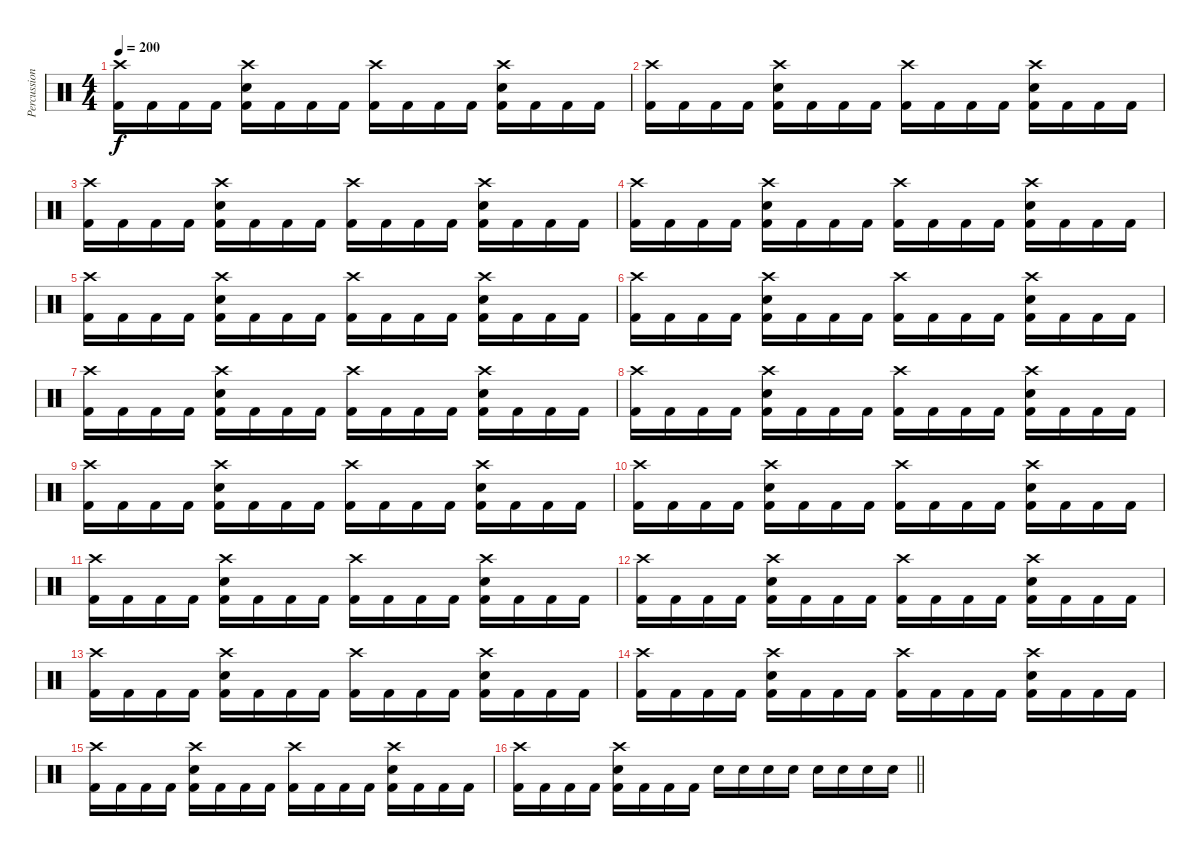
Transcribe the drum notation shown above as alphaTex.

\track ("Percussion" "Percussion") {instrument percussion}
\staff {score}
\articulation defaults
\ts (4 4)
\section ("" "")
\tempo 200
\clef neutral
\ks c
("Crash high (hit)" "Kick (hit) 2").16{dy f} "Kick (hit) 2".16 "Kick (hit) 2".16 "Kick (hit) 2".16 ("Crash high (hit)" "Electric Snare (hit)" "Kick (hit) 2").16 "Kick (hit) 2".16 "Kick (hit) 2".16 "Kick (hit) 2".16 ("Crash high (hit)" "Kick (hit) 2").16 "Kick (hit) 2".16 "Kick (hit) 2".16 "Kick (hit) 2".16 ("Crash high (hit)" "Electric Snare (hit)" "Kick (hit) 2").16 "Kick (hit) 2".16 "Kick (hit) 2".16 "Kick (hit) 2".16 |
("Crash high (hit)" "Kick (hit) 2").16 "Kick (hit) 2".16 "Kick (hit) 2".16 "Kick (hit) 2".16 ("Crash high (hit)" "Electric Snare (hit)" "Kick (hit) 2").16 "Kick (hit) 2".16 "Kick (hit) 2".16 "Kick (hit) 2".16 ("Crash high (hit)" "Kick (hit) 2").16 "Kick (hit) 2".16 "Kick (hit) 2".16 "Kick (hit) 2".16 ("Crash high (hit)" "Electric Snare (hit)" "Kick (hit) 2").16 "Kick (hit) 2".16 "Kick (hit) 2".16 "Kick (hit) 2".16 |
("Crash high (hit)" "Kick (hit) 2").16 "Kick (hit) 2".16 "Kick (hit) 2".16 "Kick (hit) 2".16 ("Crash high (hit)" "Electric Snare (hit)" "Kick (hit) 2").16 "Kick (hit) 2".16 "Kick (hit) 2".16 "Kick (hit) 2".16 ("Crash high (hit)" "Kick (hit) 2").16 "Kick (hit) 2".16 "Kick (hit) 2".16 "Kick (hit) 2".16 ("Crash high (hit)" "Electric Snare (hit)" "Kick (hit) 2").16 "Kick (hit) 2".16 "Kick (hit) 2".16 "Kick (hit) 2".16 |
("Crash high (hit)" "Kick (hit) 2").16 "Kick (hit) 2".16 "Kick (hit) 2".16 "Kick (hit) 2".16 ("Crash high (hit)" "Electric Snare (hit)" "Kick (hit) 2").16 "Kick (hit) 2".16 "Kick (hit) 2".16 "Kick (hit) 2".16 ("Crash high (hit)" "Kick (hit) 2").16 "Kick (hit) 2".16 "Kick (hit) 2".16 "Kick (hit) 2".16 ("Crash high (hit)" "Electric Snare (hit)" "Kick (hit) 2").16 "Kick (hit) 2".16 "Kick (hit) 2".16 "Kick (hit) 2".16 |
("Crash high (hit)" "Kick (hit) 2").16 "Kick (hit) 2".16 "Kick (hit) 2".16 "Kick (hit) 2".16 ("Crash high (hit)" "Electric Snare (hit)" "Kick (hit) 2").16 "Kick (hit) 2".16 "Kick (hit) 2".16 "Kick (hit) 2".16 ("Crash high (hit)" "Kick (hit) 2").16 "Kick (hit) 2".16 "Kick (hit) 2".16 "Kick (hit) 2".16 ("Crash high (hit)" "Electric Snare (hit)" "Kick (hit) 2").16 "Kick (hit) 2".16 "Kick (hit) 2".16 "Kick (hit) 2".16 |
("Crash high (hit)" "Kick (hit) 2").16 "Kick (hit) 2".16 "Kick (hit) 2".16 "Kick (hit) 2".16 ("Crash high (hit)" "Electric Snare (hit)" "Kick (hit) 2").16 "Kick (hit) 2".16 "Kick (hit) 2".16 "Kick (hit) 2".16 ("Crash high (hit)" "Kick (hit) 2").16 "Kick (hit) 2".16 "Kick (hit) 2".16 "Kick (hit) 2".16 ("Crash high (hit)" "Electric Snare (hit)" "Kick (hit) 2").16 "Kick (hit) 2".16 "Kick (hit) 2".16 "Kick (hit) 2".16 |
("Crash high (hit)" "Kick (hit) 2").16 "Kick (hit) 2".16 "Kick (hit) 2".16 "Kick (hit) 2".16 ("Crash high (hit)" "Electric Snare (hit)" "Kick (hit) 2").16 "Kick (hit) 2".16 "Kick (hit) 2".16 "Kick (hit) 2".16 ("Crash high (hit)" "Kick (hit) 2").16 "Kick (hit) 2".16 "Kick (hit) 2".16 "Kick (hit) 2".16 ("Crash high (hit)" "Electric Snare (hit)" "Kick (hit) 2").16 "Kick (hit) 2".16 "Kick (hit) 2".16 "Kick (hit) 2".16 |
("Crash high (hit)" "Kick (hit) 2").16 "Kick (hit) 2".16 "Kick (hit) 2".16 "Kick (hit) 2".16 ("Crash high (hit)" "Electric Snare (hit)" "Kick (hit) 2").16 "Kick (hit) 2".16 "Kick (hit) 2".16 "Kick (hit) 2".16 ("Crash high (hit)" "Kick (hit) 2").16 "Kick (hit) 2".16 "Kick (hit) 2".16 "Kick (hit) 2".16 ("Crash high (hit)" "Electric Snare (hit)" "Kick (hit) 2").16 "Kick (hit) 2".16 "Kick (hit) 2".16 "Kick (hit) 2".16 |
("Crash high (hit)" "Kick (hit) 2").16 "Kick (hit) 2".16 "Kick (hit) 2".16 "Kick (hit) 2".16 ("Crash high (hit)" "Electric Snare (hit)" "Kick (hit) 2").16 "Kick (hit) 2".16 "Kick (hit) 2".16 "Kick (hit) 2".16 ("Crash high (hit)" "Kick (hit) 2").16 "Kick (hit) 2".16 "Kick (hit) 2".16 "Kick (hit) 2".16 ("Crash high (hit)" "Electric Snare (hit)" "Kick (hit) 2").16 "Kick (hit) 2".16 "Kick (hit) 2".16 "Kick (hit) 2".16 |
("Crash high (hit)" "Kick (hit) 2").16 "Kick (hit) 2".16 "Kick (hit) 2".16 "Kick (hit) 2".16 ("Crash high (hit)" "Electric Snare (hit)" "Kick (hit) 2").16 "Kick (hit) 2".16 "Kick (hit) 2".16 "Kick (hit) 2".16 ("Crash high (hit)" "Kick (hit) 2").16 "Kick (hit) 2".16 "Kick (hit) 2".16 "Kick (hit) 2".16 ("Crash high (hit)" "Electric Snare (hit)" "Kick (hit) 2").16 "Kick (hit) 2".16 "Kick (hit) 2".16 "Kick (hit) 2".16 |
("Crash high (hit)" "Kick (hit) 2").16 "Kick (hit) 2".16 "Kick (hit) 2".16 "Kick (hit) 2".16 ("Crash high (hit)" "Electric Snare (hit)" "Kick (hit) 2").16 "Kick (hit) 2".16 "Kick (hit) 2".16 "Kick (hit) 2".16 ("Crash high (hit)" "Kick (hit) 2").16 "Kick (hit) 2".16 "Kick (hit) 2".16 "Kick (hit) 2".16 ("Crash high (hit)" "Electric Snare (hit)" "Kick (hit) 2").16 "Kick (hit) 2".16 "Kick (hit) 2".16 "Kick (hit) 2".16 |
("Crash high (hit)" "Kick (hit) 2").16 "Kick (hit) 2".16 "Kick (hit) 2".16 "Kick (hit) 2".16 ("Crash high (hit)" "Electric Snare (hit)" "Kick (hit) 2").16 "Kick (hit) 2".16 "Kick (hit) 2".16 "Kick (hit) 2".16 ("Crash high (hit)" "Kick (hit) 2").16 "Kick (hit) 2".16 "Kick (hit) 2".16 "Kick (hit) 2".16 ("Crash high (hit)" "Electric Snare (hit)" "Kick (hit) 2").16 "Kick (hit) 2".16 "Kick (hit) 2".16 "Kick (hit) 2".16 |
("Crash high (hit)" "Kick (hit) 2").16 "Kick (hit) 2".16 "Kick (hit) 2".16 "Kick (hit) 2".16 ("Crash high (hit)" "Electric Snare (hit)" "Kick (hit) 2").16 "Kick (hit) 2".16 "Kick (hit) 2".16 "Kick (hit) 2".16 ("Crash high (hit)" "Kick (hit) 2").16 "Kick (hit) 2".16 "Kick (hit) 2".16 "Kick (hit) 2".16 ("Crash high (hit)" "Electric Snare (hit)" "Kick (hit) 2").16 "Kick (hit) 2".16 "Kick (hit) 2".16 "Kick (hit) 2".16 |
("Crash high (hit)" "Kick (hit) 2").16 "Kick (hit) 2".16 "Kick (hit) 2".16 "Kick (hit) 2".16 ("Crash high (hit)" "Electric Snare (hit)" "Kick (hit) 2").16 "Kick (hit) 2".16 "Kick (hit) 2".16 "Kick (hit) 2".16 ("Crash high (hit)" "Kick (hit) 2").16 "Kick (hit) 2".16 "Kick (hit) 2".16 "Kick (hit) 2".16 ("Crash high (hit)" "Electric Snare (hit)" "Kick (hit) 2").16 "Kick (hit) 2".16 "Kick (hit) 2".16 "Kick (hit) 2".16 |
("Crash high (hit)" "Kick (hit) 2").16 "Kick (hit) 2".16 "Kick (hit) 2".16 "Kick (hit) 2".16 ("Crash high (hit)" "Electric Snare (hit)" "Kick (hit) 2").16 "Kick (hit) 2".16 "Kick (hit) 2".16 "Kick (hit) 2".16 ("Crash high (hit)" "Kick (hit) 2").16 "Kick (hit) 2".16 "Kick (hit) 2".16 "Kick (hit) 2".16 ("Crash high (hit)" "Electric Snare (hit)" "Kick (hit) 2").16 "Kick (hit) 2".16 "Kick (hit) 2".16 "Kick (hit) 2".16 |
\barLineRight lightlight
("Crash high (hit)" "Kick (hit) 2").16 "Kick (hit) 2".16 "Kick (hit) 2".16 "Kick (hit) 2".16 ("Crash high (hit)" "Electric Snare (hit)" "Kick (hit) 2").16 "Kick (hit) 2".16 "Kick (hit) 2".16 "Kick (hit) 2".16 "Electric Snare (hit)".16 "Electric Snare (hit)".16 "Electric Snare (hit)".16 "Electric Snare (hit)".16 "Electric Snare (hit)".16 "Electric Snare (hit)".16 "Electric Snare (hit)".16 "Electric Snare (hit)".16
